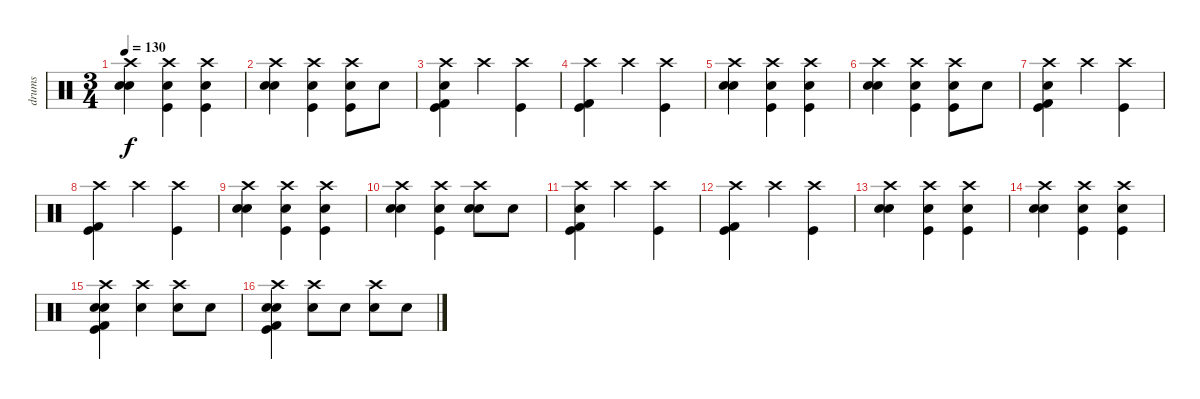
\track ("drums" "drums") {instrument percussion}
\staff {score}
\articulation defaults
\ts (3 4)
\tempo 130
\clef neutral
\ks c
("Crash high (hit)" "Snare (hit) 2" "Electric Snare (hit)").4{dy f} ("Crash high (hit)" "Snare (hit) 2" "Kick (hit)").4 ("Crash high (hit)" "Snare (hit) 2" "Kick (hit)").4 |
("Crash high (hit)" "Snare (hit) 2" "Electric Snare (hit)").4 ("Crash high (hit)" "Snare (hit) 2" "Kick (hit)").4 ("Crash high (hit)" "Snare (hit) 2" "Kick (hit)").8 "Snare (hit) 2".8 |
("Crash high (hit)" "Snare (hit) 2" "Kick (hit) 2" "Kick (hit)").4 "Crash high (hit)".4 ("Crash high (hit)" "Kick (hit)").4 |
("Crash high (hit)" "Kick (hit) 2" "Kick (hit)").4 "Crash high (hit)".4 ("Crash high (hit)" "Kick (hit)").4 |
("Crash high (hit)" "Snare (hit) 2" "Electric Snare (hit)").4 ("Crash high (hit)" "Snare (hit) 2" "Kick (hit)").4 ("Crash high (hit)" "Snare (hit) 2" "Kick (hit)").4 |
("Crash high (hit)" "Snare (hit) 2" "Electric Snare (hit)").4 ("Crash high (hit)" "Snare (hit) 2" "Kick (hit)").4 ("Crash high (hit)" "Snare (hit) 2" "Kick (hit)").8 "Snare (hit) 2".8 |
("Crash high (hit)" "Snare (hit) 2" "Kick (hit) 2" "Kick (hit)").4 "Crash high (hit)".4 ("Crash high (hit)" "Kick (hit)").4 |
("Crash high (hit)" "Kick (hit) 2" "Kick (hit)").4 "Crash high (hit)".4 ("Crash high (hit)" "Kick (hit)").4 |
("Crash high (hit)" "Snare (hit) 2" "Electric Snare (hit)").4 ("Crash high (hit)" "Snare (hit) 2" "Kick (hit)").4 ("Crash high (hit)" "Snare (hit) 2" "Kick (hit)").4 |
("Crash high (hit)" "Snare (hit) 2" "Electric Snare (hit)").4 ("Crash high (hit)" "Snare (hit) 2" "Kick (hit)").4 ("Crash high (hit)" "Snare (hit) 2" "Electric Snare (hit)").8 "Snare (hit) 2".8 |
("Crash high (hit)" "Snare (hit) 2" "Kick (hit) 2" "Kick (hit)").4 "Crash high (hit)".4 ("Crash high (hit)" "Kick (hit)").4 |
("Crash high (hit)" "Kick (hit) 2" "Kick (hit)").4 "Crash high (hit)".4 ("Crash high (hit)" "Kick (hit)").4 |
("Crash high (hit)" "Snare (hit) 2" "Electric Snare (hit)").4 ("Crash high (hit)" "Snare (hit) 2" "Kick (hit)").4 ("Crash high (hit)" "Snare (hit) 2" "Kick (hit)").4 |
("Crash high (hit)" "Snare (hit) 2" "Electric Snare (hit)").4 ("Crash high (hit)" "Snare (hit) 2" "Kick (hit)").4 ("Crash high (hit)" "Snare (hit) 2" "Kick (hit)").4 |
("Crash high (hit)" "Electric Snare (hit)" "Snare (hit) 2" "Kick (hit) 2" "Kick (hit)").4 ("Crash high (hit)" "Snare (hit) 2").4 ("Crash high (hit)" "Snare (hit) 2").8 "Snare (hit) 2".8 |
("Crash high (hit)" "Electric Snare (hit)" "Snare (hit) 2" "Kick (hit) 2" "Kick (hit)").4 ("Crash high (hit)" "Electric Snare (hit)").8 "Electric Snare (hit)".8 ("Crash high (hit)" "Electric Snare (hit)").8 "Electric Snare (hit)".8
